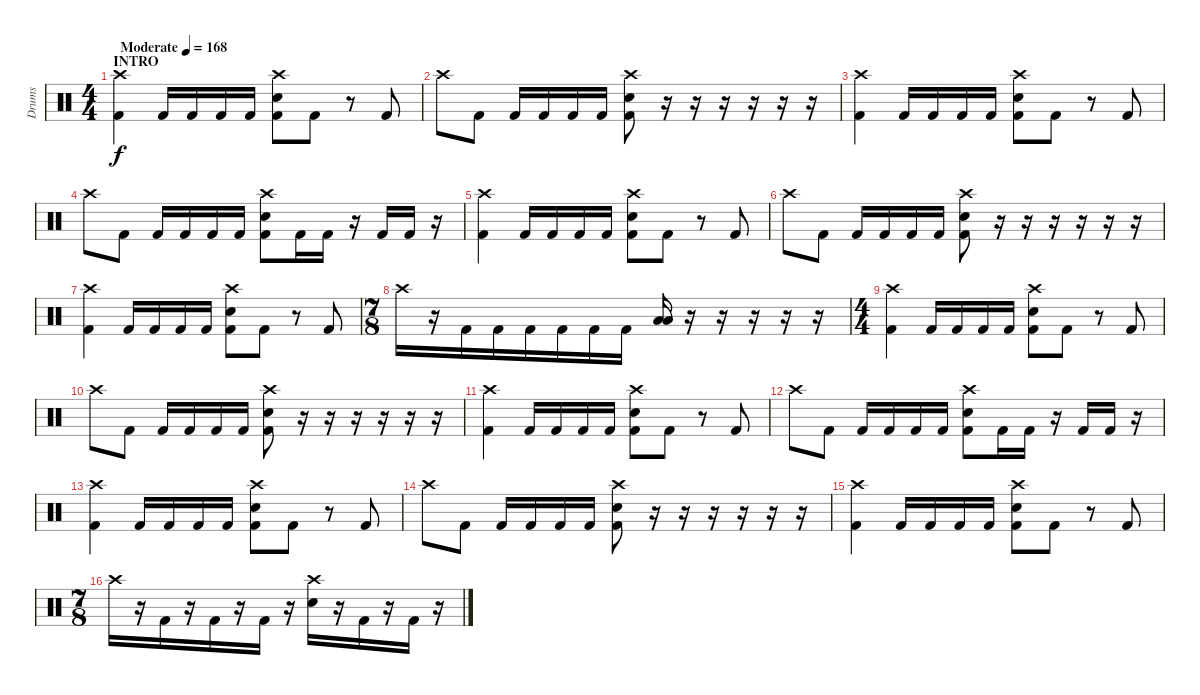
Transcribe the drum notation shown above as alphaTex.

\track ("Drums" "Drums") {instrument percussion}
\staff {score}
\articulation defaults
\ts (4 4)
\section ("" "INTRO")
\tempo (168 "Moderate")
\clef neutral
\ks c
("Crash high (hit)" "Kick (hit) 2").4{dy f} "Kick (hit) 2".16 "Kick (hit) 2".16 "Kick (hit) 2".16 "Kick (hit) 2".16 ("Crash high (hit)" "Snare (hit) 2" "Kick (hit) 2").8 "Kick (hit) 2".8 r.8 "Kick (hit) 2".8 |
"Crash high (hit)".8 "Kick (hit) 2".8 "Kick (hit) 2".16 "Kick (hit) 2".16 "Kick (hit) 2".16 "Kick (hit) 2".16 ("Crash high (hit)" "Snare (hit) 2" "Kick (hit) 2").8 r.16 r.16 r.16 r.16 r.16 r.16 |
("Crash high (hit)" "Kick (hit) 2").4 "Kick (hit) 2".16 "Kick (hit) 2".16 "Kick (hit) 2".16 "Kick (hit) 2".16 ("Crash high (hit)" "Snare (hit) 2" "Kick (hit) 2").8 "Kick (hit) 2".8 r.8 "Kick (hit) 2".8 |
"Crash high (hit)".8 "Kick (hit) 2".8 "Kick (hit) 2".16 "Kick (hit) 2".16 "Kick (hit) 2".16 "Kick (hit) 2".16 ("Crash high (hit)" "Snare (hit) 2" "Kick (hit) 2").8 "Kick (hit) 2".16 "Kick (hit) 2".16 r.16 "Kick (hit) 2".16 "Kick (hit) 2".16 r.16 |
("Crash high (hit)" "Kick (hit) 2").4 "Kick (hit) 2".16 "Kick (hit) 2".16 "Kick (hit) 2".16 "Kick (hit) 2".16 ("Crash high (hit)" "Snare (hit) 2" "Kick (hit) 2").8 "Kick (hit) 2".8 r.8 "Kick (hit) 2".8 |
"Crash high (hit)".8 "Kick (hit) 2".8 "Kick (hit) 2".16 "Kick (hit) 2".16 "Kick (hit) 2".16 "Kick (hit) 2".16 ("Crash high (hit)" "Snare (hit) 2" "Kick (hit) 2").8 r.16 r.16 r.16 r.16 r.16 r.16 |
("Crash high (hit)" "Kick (hit) 2").4 "Kick (hit) 2".16 "Kick (hit) 2".16 "Kick (hit) 2".16 "Kick (hit) 2".16 ("Crash high (hit)" "Snare (hit) 2" "Kick (hit) 2").8 "Kick (hit) 2".8 r.8 "Kick (hit) 2".8 |
\ts (7 8)
"Crash high (hit)".16 r.16 "Kick (hit) 2".16 "Kick (hit) 2".16 "Kick (hit) 2".16 "Kick (hit) 2".16 "Kick (hit) 2".16 "Kick (hit) 2".16 ("Low Floor Tom (hit)" "Low Floor Tom (hit)").16 r.16 r.16 r.16 r.16 r.16 |
\ts (4 4)
("Crash high (hit)" "Kick (hit) 2").4 "Kick (hit) 2".16 "Kick (hit) 2".16 "Kick (hit) 2".16 "Kick (hit) 2".16 ("Crash high (hit)" "Snare (hit) 2" "Kick (hit) 2").8 "Kick (hit) 2".8 r.8 "Kick (hit) 2".8 |
"Crash high (hit)".8 "Kick (hit) 2".8 "Kick (hit) 2".16 "Kick (hit) 2".16 "Kick (hit) 2".16 "Kick (hit) 2".16 ("Crash high (hit)" "Snare (hit) 2" "Kick (hit) 2").8 r.16 r.16 r.16 r.16 r.16 r.16 |
("Crash high (hit)" "Kick (hit) 2").4 "Kick (hit) 2".16 "Kick (hit) 2".16 "Kick (hit) 2".16 "Kick (hit) 2".16 ("Crash high (hit)" "Snare (hit) 2" "Kick (hit) 2").8 "Kick (hit) 2".8 r.8 "Kick (hit) 2".8 |
"Crash high (hit)".8 "Kick (hit) 2".8 "Kick (hit) 2".16 "Kick (hit) 2".16 "Kick (hit) 2".16 "Kick (hit) 2".16 ("Crash high (hit)" "Snare (hit) 2" "Kick (hit) 2").8 "Kick (hit) 2".16 "Kick (hit) 2".16 r.16 "Kick (hit) 2".16 "Kick (hit) 2".16 r.16 |
("Crash high (hit)" "Kick (hit) 2").4 "Kick (hit) 2".16 "Kick (hit) 2".16 "Kick (hit) 2".16 "Kick (hit) 2".16 ("Crash high (hit)" "Snare (hit) 2" "Kick (hit) 2").8 "Kick (hit) 2".8 r.8 "Kick (hit) 2".8 |
"Crash high (hit)".8 "Kick (hit) 2".8 "Kick (hit) 2".16 "Kick (hit) 2".16 "Kick (hit) 2".16 "Kick (hit) 2".16 ("Crash high (hit)" "Snare (hit) 2" "Kick (hit) 2").8 r.16 r.16 r.16 r.16 r.16 r.16 |
("Crash high (hit)" "Kick (hit) 2").4 "Kick (hit) 2".16 "Kick (hit) 2".16 "Kick (hit) 2".16 "Kick (hit) 2".16 ("Crash high (hit)" "Snare (hit) 2" "Kick (hit) 2").8 "Kick (hit) 2".8 r.8 "Kick (hit) 2".8 |
\ts (7 8)
"Crash high (hit)".16 r.16 "Kick (hit) 2".16 r.16 "Kick (hit) 2".16 r.16 "Kick (hit) 2".16 r.16 ("Crash high (hit)" "Snare (hit) 2").16 r.16 "Kick (hit) 2".16 r.16 "Kick (hit) 2".16 r.16
